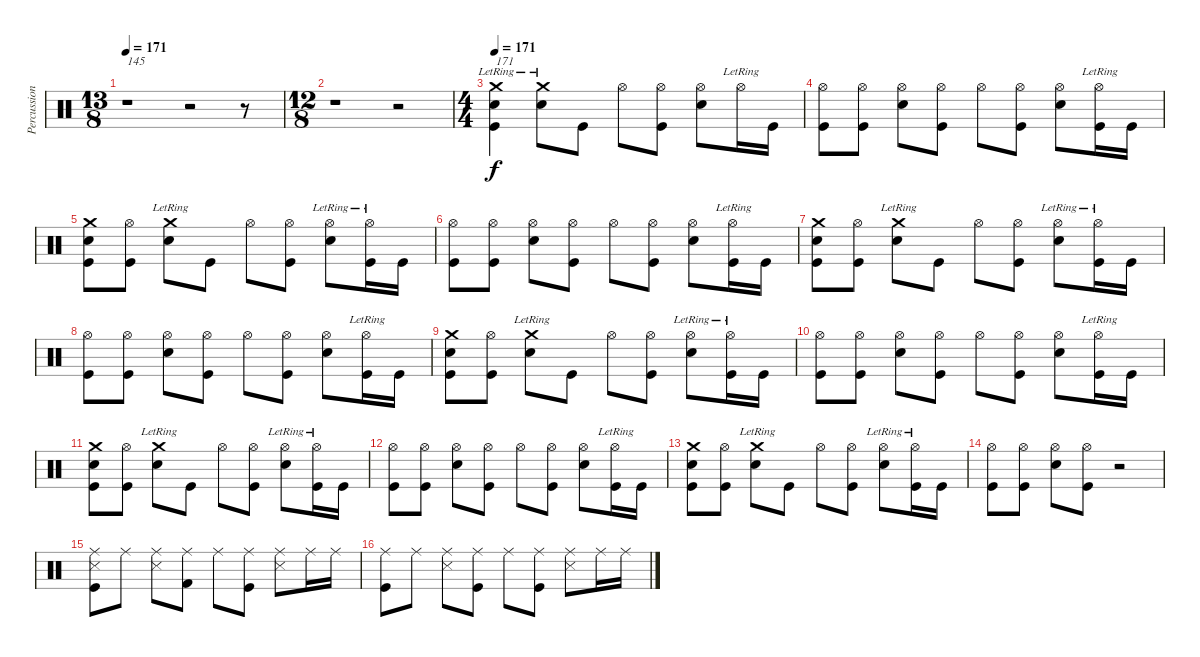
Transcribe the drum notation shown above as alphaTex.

\track ("Percussions" "Percussion") {instrument percussion}
\staff {score}
\articulation defaults
\ts (13 8)
\tempo 171
\tempo 145
\tempo 171
\clef neutral
\ks c
r.1{txt "145" dy f} r.2 r.8 |
\ts (12 8)
r.1 r.2 |
\ts (4 4)
\tempo 171
("Crash medium (hit)"{lr} "Snare (hit) 2" "Kick (hit)").4{txt "171"} ("Crash medium (hit)"{lr} "Snare (hit) 2").8 "Kick (hit)".8 "Hi-Hat (open)".8 ("Hi-Hat (open)" "Kick (hit)").8 ("Hi-Hat (open)" "Snare (hit) 2").8 "Hi-Hat (open)"{lr}.16 "Kick (hit)".16 |
("Hi-Hat (open)" "Kick (hit)").8 ("Hi-Hat (open)" "Kick (hit)").8 ("Hi-Hat (open)" "Snare (hit) 2").8 ("Hi-Hat (open)" "Kick (hit)").8 "Hi-Hat (open)".8 ("Hi-Hat (open)" "Kick (hit)").8 ("Hi-Hat (open)" "Snare (hit) 2").8 ("Hi-Hat (open)"{lr} "Kick (hit)").16 "Kick (hit)".16 |
("Crash medium (hit)" "Snare (hit) 2" "Kick (hit)").8 ("Hi-Hat (open)" "Kick (hit)").8 ("Crash medium (hit)"{lr} "Snare (hit) 2").8 "Kick (hit)".8 "Hi-Hat (open)".8 ("Hi-Hat (open)" "Kick (hit)").8 ("Hi-Hat (open)"{lr} "Snare (hit) 2").8 ("Hi-Hat (open)"{lr} "Kick (hit)").16 "Kick (hit)".16 |
("Hi-Hat (open)" "Kick (hit)").8 ("Hi-Hat (open)" "Kick (hit)").8 ("Hi-Hat (open)" "Snare (hit) 2").8 ("Hi-Hat (open)" "Kick (hit)").8 "Hi-Hat (open)".8 ("Hi-Hat (open)" "Kick (hit)").8 ("Hi-Hat (open)" "Snare (hit) 2").8 ("Hi-Hat (open)"{lr} "Kick (hit)").16 "Kick (hit)".16 |
("Crash medium (hit)" "Snare (hit) 2" "Kick (hit)").8 ("Hi-Hat (open)" "Kick (hit)").8 ("Crash medium (hit)"{lr} "Snare (hit) 2").8 "Kick (hit)".8 "Hi-Hat (open)".8 ("Hi-Hat (open)" "Kick (hit)").8 ("Hi-Hat (open)"{lr} "Snare (hit) 2").8 ("Hi-Hat (open)"{lr} "Kick (hit)").16 "Kick (hit)".16 |
("Hi-Hat (open)" "Kick (hit)").8 ("Hi-Hat (open)" "Kick (hit)").8 ("Hi-Hat (open)" "Snare (hit) 2").8 ("Hi-Hat (open)" "Kick (hit)").8 "Hi-Hat (open)".8 ("Hi-Hat (open)" "Kick (hit)").8 ("Hi-Hat (open)" "Snare (hit) 2").8 ("Hi-Hat (open)"{lr} "Kick (hit)").16 "Kick (hit)".16 |
("Crash medium (hit)" "Snare (hit) 2" "Kick (hit)").8 ("Hi-Hat (open)" "Kick (hit)").8 ("Crash medium (hit)"{lr} "Snare (hit) 2").8 "Kick (hit)".8 "Hi-Hat (open)".8 ("Hi-Hat (open)" "Kick (hit)").8 ("Hi-Hat (open)"{lr} "Snare (hit) 2").8 ("Hi-Hat (open)"{lr} "Kick (hit)").16 "Kick (hit)".16 |
("Hi-Hat (open)" "Kick (hit)").8 ("Hi-Hat (open)" "Kick (hit)").8 ("Hi-Hat (open)" "Snare (hit) 2").8 ("Hi-Hat (open)" "Kick (hit)").8 "Hi-Hat (open)".8 ("Hi-Hat (open)" "Kick (hit)").8 ("Hi-Hat (open)" "Snare (hit) 2").8 ("Hi-Hat (open)"{lr} "Kick (hit)").16 "Kick (hit)".16 |
("Crash medium (hit)" "Snare (hit) 2" "Kick (hit)").8 ("Hi-Hat (open)" "Kick (hit)").8 ("Crash medium (hit)"{lr} "Snare (hit) 2").8 "Kick (hit)".8 "Hi-Hat (open)".8 ("Hi-Hat (open)" "Kick (hit)").8 ("Hi-Hat (open)"{lr} "Snare (hit) 2").8 ("Hi-Hat (open)"{lr} "Kick (hit)").16 "Kick (hit)".16 |
("Hi-Hat (open)" "Kick (hit)").8 ("Hi-Hat (open)" "Kick (hit)").8 ("Hi-Hat (open)" "Snare (hit) 2").8 ("Hi-Hat (open)" "Kick (hit)").8 "Hi-Hat (open)".8 ("Hi-Hat (open)" "Kick (hit)").8 ("Hi-Hat (open)" "Snare (hit) 2").8 ("Hi-Hat (open)"{lr} "Kick (hit)").16 "Kick (hit)".16 |
("Crash medium (hit)" "Snare (hit) 2" "Kick (hit)").8 ("Hi-Hat (open)" "Kick (hit)").8 ("Crash medium (hit)"{lr} "Snare (hit) 2").8 "Kick (hit)".8 "Hi-Hat (open)".8 ("Hi-Hat (open)" "Kick (hit)").8 ("Hi-Hat (open)"{lr} "Snare (hit) 2").8 ("Hi-Hat (open)"{lr} "Kick (hit)").16 "Kick (hit)".16 |
("Hi-Hat (open)" "Kick (hit)").8 ("Hi-Hat (open)" "Kick (hit)").8 ("Hi-Hat (open)" "Snare (hit) 2").8 ("Hi-Hat (open)" "Kick (hit)").8 r.2 |
("Ride (middle)" "Snare (side stick) 3" "Kick (hit)").8 "Ride (middle)".8 ("Ride (middle)" "Snare (side stick) 3").8 ("Ride (middle)" "Kick (hit) 2").8 "Ride (middle)".8 ("Ride (middle)" "Kick (hit)").8 ("Ride (middle)" "Snare (side stick) 3").8 "Ride (middle)".16 "Ride (middle)".16 |
("Ride (middle)" "Kick (hit)").8 "Ride (middle)".8 ("Ride (middle)" "Snare (side stick) 3").8 ("Ride (middle)" "Kick (hit)").8 "Ride (middle)".8 ("Ride (middle)" "Kick (hit)").8 ("Ride (middle)" "Snare (side stick) 3").8 "Ride (middle)".16 "Ride (middle)".16
